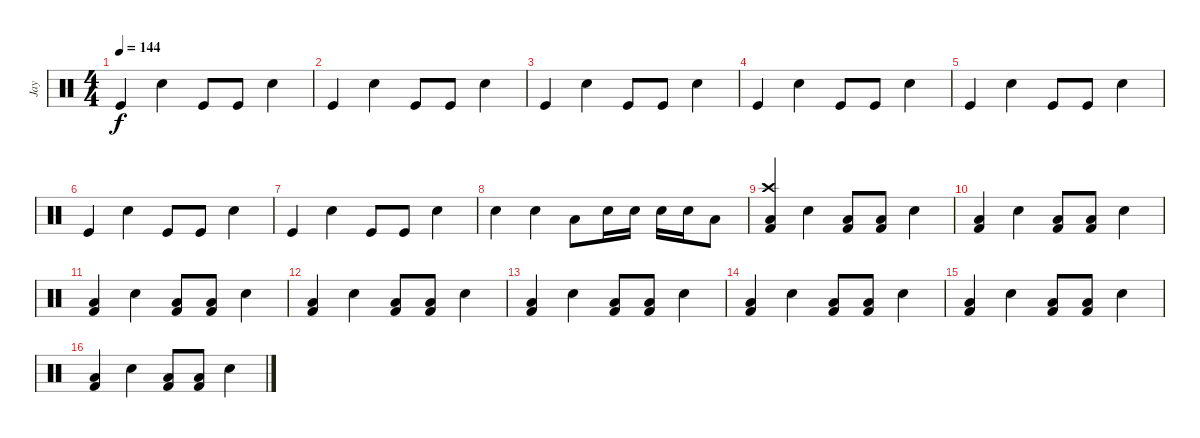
\track ("Jay" "Jay") {instrument percussion}
\staff {score}
\articulation defaults
\ts (4 4)
\tempo 144
\clef neutral
\ks c "Kick (hit)".4{dy f} "Electric Snare (hit)".4 "Kick (hit)".8 "Kick (hit)".8 "Electric Snare (hit)".4
|
"Kick (hit)".4 "Electric Snare (hit)".4 "Kick (hit)".8 "Kick (hit)".8 "Electric Snare (hit)".4 |
"Kick (hit)".4 "Electric Snare (hit)".4 "Kick (hit)".8 "Kick (hit)".8 "Electric Snare (hit)".4 |
"Kick (hit)".4 "Electric Snare (hit)".4 "Kick (hit)".8 "Kick (hit)".8 "Electric Snare (hit)".4 |
"Kick (hit)".4 "Electric Snare (hit)".4 "Kick (hit)".8 "Kick (hit)".8 "Electric Snare (hit)".4 |
"Kick (hit)".4 "Electric Snare (hit)".4 "Kick (hit)".8 "Kick (hit)".8 "Electric Snare (hit)".4 |
"Kick (hit)".4 "Electric Snare (hit)".4 "Kick (hit)".8 "Kick (hit)".8 "Electric Snare (hit)".4 |
"Snare (hit) 2".4 "Electric Snare (hit)".4 "Low Tom (hit)".8 "Electric Snare (hit)".16 "Electric Snare (hit)".16 "Electric Snare (hit)".16 "Electric Snare (hit)".16 "Low Tom (hit)".8 |
("Crash high (hit)" "Low Tom (hit)" "Kick (hit) 2").4 "Electric Snare (hit)".4 ("Low Tom (hit)" "Kick (hit) 2").8 ("Low Tom (hit)" "Kick (hit) 2").8 "Electric Snare (hit)".4 |
("Low Tom (hit)" "Kick (hit) 2").4 "Electric Snare (hit)".4 ("Low Tom (hit)" "Kick (hit) 2").8 ("Low Tom (hit)" "Kick (hit) 2").8 "Electric Snare (hit)".4 |
("Low Tom (hit)" "Kick (hit) 2").4 "Electric Snare (hit)".4 ("Low Tom (hit)" "Kick (hit) 2").8 ("Low Tom (hit)" "Kick (hit) 2").8 "Electric Snare (hit)".4 |
("Low Tom (hit)" "Kick (hit) 2").4 "Electric Snare (hit)".4 ("Low Tom (hit)" "Kick (hit) 2").8 ("Low Tom (hit)" "Kick (hit) 2").8 "Electric Snare (hit)".4 |
("Low Tom (hit)" "Kick (hit) 2").4 "Electric Snare (hit)".4 ("Low Tom (hit)" "Kick (hit) 2").8 ("Low Tom (hit)" "Kick (hit) 2").8 "Electric Snare (hit)".4 |
("Low Tom (hit)" "Kick (hit) 2").4 "Electric Snare (hit)".4 ("Low Tom (hit)" "Kick (hit) 2").8 ("Low Tom (hit)" "Kick (hit) 2").8 "Electric Snare (hit)".4 |
("Low Tom (hit)" "Kick (hit) 2").4 "Electric Snare (hit)".4 ("Low Tom (hit)" "Kick (hit) 2").8 ("Low Tom (hit)" "Kick (hit) 2").8 "Electric Snare (hit)".4 |
("Low Tom (hit)" "Kick (hit) 2").4 "Electric Snare (hit)".4 ("Low Tom (hit)" "Kick (hit) 2").8 ("Low Tom (hit)" "Kick (hit) 2").8 "Electric Snare (hit)".4
